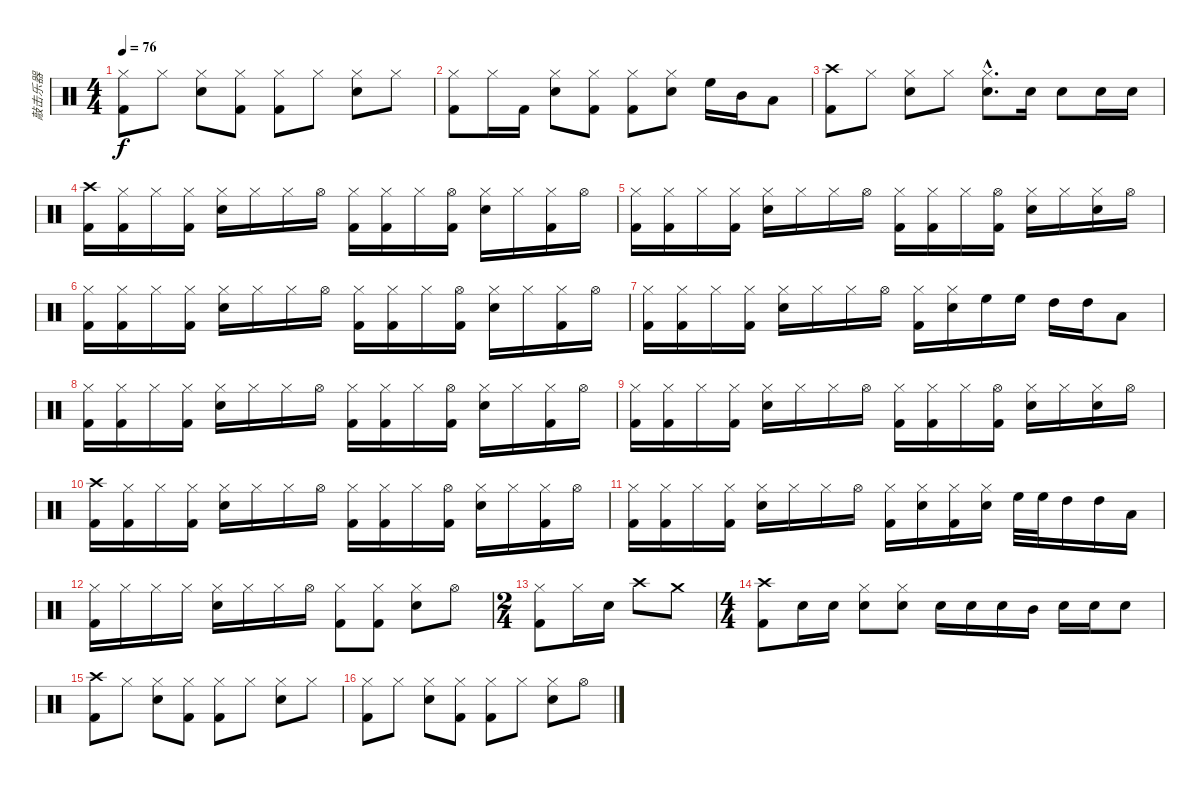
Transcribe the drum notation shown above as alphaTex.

\track ("敲击乐器" "敲击乐器") {instrument percussion}
\staff {score}
\articulation defaults
\ts (4 4)
\tempo 76
\clef neutral
\ks c
("Hi-Hat (closed)" "Kick (hit) 2").8{dy f} "Hi-Hat (closed)".8 ("Hi-Hat (closed)" "Snare (hit) 2").8 ("Hi-Hat (closed)" "Kick (hit) 2").8 ("Hi-Hat (closed)" "Kick (hit) 2").8 "Hi-Hat (closed)".8 ("Hi-Hat (closed)" "Snare (hit) 2").8 "Hi-Hat (closed)".8 |
("Hi-Hat (closed)" "Kick (hit) 2").8 "Hi-Hat (closed)".16 "Kick (hit) 2".16 ("Hi-Hat (closed)" "Snare (hit) 2").8 ("Hi-Hat (closed)" "Kick (hit) 2").8 ("Hi-Hat (closed)" "Kick (hit) 2").8 ("Hi-Hat (closed)" "Snare (hit) 2").8 "High Floor Tom (hit)".16 "Mid Tom (hit)".16 "Low Tom (hit)".8 |
("Crash high (hit)" "Kick (hit) 2").8 "Hi-Hat (closed)".8 ("Hi-Hat (closed)" "Snare (hit) 2").8 "Hi-Hat (closed)".8 ("Hi-Hat (closed)"{hac} "Snare (hit) 2"{hac}).8{d} "Snare (hit) 2".16 "Snare (hit) 2".8 "Snare (hit) 2".16 "Snare (hit) 2".16 |
("Crash high (hit)" "Kick (hit) 2").16 ("Hi-Hat (closed)" "Kick (hit) 2").16 "Hi-Hat (closed)".16 ("Hi-Hat (closed)" "Kick (hit) 2").16 ("Hi-Hat (closed)" "Snare (hit) 2").16 "Hi-Hat (closed)".16 "Hi-Hat (closed)".16 "Hi-Hat (open)".16 ("Hi-Hat (closed)" "Kick (hit) 2").16 ("Hi-Hat (closed)" "Kick (hit) 2").16 "Hi-Hat (closed)".16 ("Hi-Hat (open)" "Kick (hit) 2").16 ("Hi-Hat (closed)" "Snare (hit) 2").16 "Hi-Hat (closed)".16 ("Hi-Hat (closed)" "Kick (hit) 2").16 "Hi-Hat (open)".16 |
("Hi-Hat (closed)" "Kick (hit) 2").16 ("Hi-Hat (closed)" "Kick (hit) 2").16 "Hi-Hat (closed)".16 ("Hi-Hat (closed)" "Kick (hit) 2").16 ("Hi-Hat (closed)" "Snare (hit) 2").16 "Hi-Hat (closed)".16 "Hi-Hat (closed)".16 "Hi-Hat (open)".16 ("Hi-Hat (closed)" "Kick (hit) 2").16 ("Hi-Hat (closed)" "Kick (hit) 2").16 "Hi-Hat (closed)".16 ("Hi-Hat (open)" "Kick (hit) 2").16 ("Hi-Hat (closed)" "Snare (hit) 2").16 "Hi-Hat (closed)".16 ("Hi-Hat (closed)" "Snare (hit) 2").16 "Hi-Hat (open)".16 |
("Hi-Hat (closed)" "Kick (hit) 2").16 ("Hi-Hat (closed)" "Kick (hit) 2").16 "Hi-Hat (closed)".16 ("Hi-Hat (closed)" "Kick (hit) 2").16 ("Hi-Hat (closed)" "Snare (hit) 2").16 "Hi-Hat (closed)".16 "Hi-Hat (closed)".16 "Hi-Hat (open)".16 ("Hi-Hat (closed)" "Kick (hit) 2").16 ("Hi-Hat (closed)" "Kick (hit) 2").16 "Hi-Hat (closed)".16 ("Hi-Hat (open)" "Kick (hit) 2").16 ("Hi-Hat (closed)" "Snare (hit) 2").16 "Hi-Hat (closed)".16 ("Hi-Hat (closed)" "Kick (hit) 2").16 "Hi-Hat (open)".16 |
("Hi-Hat (closed)" "Kick (hit) 2").16 ("Hi-Hat (closed)" "Kick (hit) 2").16 "Hi-Hat (closed)".16 ("Hi-Hat (closed)" "Kick (hit) 2").16 ("Hi-Hat (closed)" "Snare (hit) 2").16 "Hi-Hat (closed)".16 "Hi-Hat (closed)".16 "Hi-Hat (open)".16 ("Hi-Hat (closed)" "Kick (hit) 2").16 ("Hi-Hat (closed)" "Snare (hit) 2").16 "High Floor Tom (hit)".16 "High Floor Tom (hit)".16 "High Tom (hit)".16 "High Tom (hit)".16 "Low Tom (hit)".8 |
("Hi-Hat (closed)" "Kick (hit) 2").16 ("Hi-Hat (closed)" "Kick (hit) 2").16 "Hi-Hat (closed)".16 ("Hi-Hat (closed)" "Kick (hit) 2").16 ("Hi-Hat (closed)" "Snare (hit) 2").16 "Hi-Hat (closed)".16 "Hi-Hat (closed)".16 "Hi-Hat (open)".16 ("Hi-Hat (closed)" "Kick (hit) 2").16 ("Hi-Hat (closed)" "Kick (hit) 2").16 "Hi-Hat (closed)".16 ("Hi-Hat (open)" "Kick (hit) 2").16 ("Hi-Hat (closed)" "Snare (hit) 2").16 "Hi-Hat (closed)".16 ("Hi-Hat (closed)" "Kick (hit) 2").16 "Hi-Hat (open)".16 |
("Hi-Hat (closed)" "Kick (hit) 2").16 ("Hi-Hat (closed)" "Kick (hit) 2").16 "Hi-Hat (closed)".16 ("Hi-Hat (closed)" "Kick (hit) 2").16 ("Hi-Hat (closed)" "Snare (hit) 2").16 "Hi-Hat (closed)".16 "Hi-Hat (closed)".16 "Hi-Hat (open)".16 ("Hi-Hat (closed)" "Kick (hit) 2").16 ("Hi-Hat (closed)" "Kick (hit) 2").16 "Hi-Hat (closed)".16 ("Hi-Hat (open)" "Kick (hit) 2").16 ("Hi-Hat (closed)" "Snare (hit) 2").16 "Hi-Hat (closed)".16 ("Hi-Hat (closed)" "Snare (hit) 2").16 "Hi-Hat (open)".16 |
("Crash high (hit)" "Kick (hit) 2").16 ("Hi-Hat (closed)" "Kick (hit) 2").16 "Hi-Hat (closed)".16 ("Hi-Hat (closed)" "Kick (hit) 2").16 ("Hi-Hat (closed)" "Snare (hit) 2").16 "Hi-Hat (closed)".16 "Hi-Hat (closed)".16 "Hi-Hat (open)".16 ("Hi-Hat (closed)" "Kick (hit) 2").16 ("Hi-Hat (closed)" "Kick (hit) 2").16 "Hi-Hat (closed)".16 ("Hi-Hat (open)" "Kick (hit) 2").16 ("Hi-Hat (closed)" "Snare (hit) 2").16 "Hi-Hat (closed)".16 ("Hi-Hat (closed)" "Kick (hit) 2").16 "Hi-Hat (open)".16 |
("Hi-Hat (closed)" "Kick (hit) 2").16 ("Hi-Hat (closed)" "Kick (hit) 2").16 "Hi-Hat (closed)".16 ("Hi-Hat (closed)" "Kick (hit) 2").16 ("Hi-Hat (closed)" "Snare (hit) 2").16 "Hi-Hat (closed)".16 "Hi-Hat (closed)".16 "Hi-Hat (open)".16 ("Hi-Hat (closed)" "Kick (hit) 2").16 ("Hi-Hat (closed)" "Snare (hit) 2").16 ("Hi-Hat (closed)" "Kick (hit) 2").16 ("Hi-Hat (closed)" "Snare (hit) 2").16 "High Floor Tom (hit)".32 "High Floor Tom (hit)".32 "High Tom (hit)".16 "High Tom (hit)".16 "Low Tom (hit)".16 |
("Hi-Hat (closed)" "Kick (hit) 2").16 "Hi-Hat (closed)".16 "Hi-Hat (closed)".16 "Hi-Hat (closed)".16 ("Hi-Hat (closed)" "Snare (hit) 2").16 "Hi-Hat (closed)".16 "Hi-Hat (closed)".16 "Hi-Hat (open)".16 ("Hi-Hat (closed)" "Kick (hit) 2").8 ("Hi-Hat (closed)" "Kick (hit) 2").8 ("Hi-Hat (closed)" "Snare (hit) 2").8 "Hi-Hat (open)".8 |
\ts (2 4)
("Hi-Hat (closed)" "Kick (hit) 2").8 "Hi-Hat (closed)".16 "Snare (hit) 2".16 "Crash high (hit)".8 "Crash medium (hit)".8 |
\ts (4 4)
("Crash high (hit)" "Kick (hit) 2").8 "Snare (hit) 2".16 "Snare (hit) 2".16 ("Hi-Hat (closed)" "Snare (hit) 2").8 ("Hi-Hat (closed)" "Snare (hit) 2").8 "Snare (hit) 2".16 "Snare (hit) 2".16 "Snare (hit) 2".16 "Mid Tom (hit)".16 "Snare (hit) 2".16 "Snare (hit) 2".16 "Snare (hit) 2".8 |
("Crash high (hit)" "Kick (hit) 2").8 "Hi-Hat (closed)".8 ("Hi-Hat (closed)" "Snare (hit) 2").8 ("Hi-Hat (closed)" "Kick (hit) 2").8 ("Hi-Hat (closed)" "Kick (hit) 2").8 "Hi-Hat (closed)".8 ("Hi-Hat (closed)" "Snare (hit) 2").8 "Hi-Hat (closed)".8 |
("Hi-Hat (closed)" "Kick (hit) 2").8 "Hi-Hat (closed)".8 ("Hi-Hat (closed)" "Snare (hit) 2").8 ("Hi-Hat (closed)" "Kick (hit) 2").8 ("Hi-Hat (closed)" "Kick (hit) 2").8 "Hi-Hat (closed)".8 ("Hi-Hat (closed)" "Snare (hit) 2").8 "Hi-Hat (open)".8
